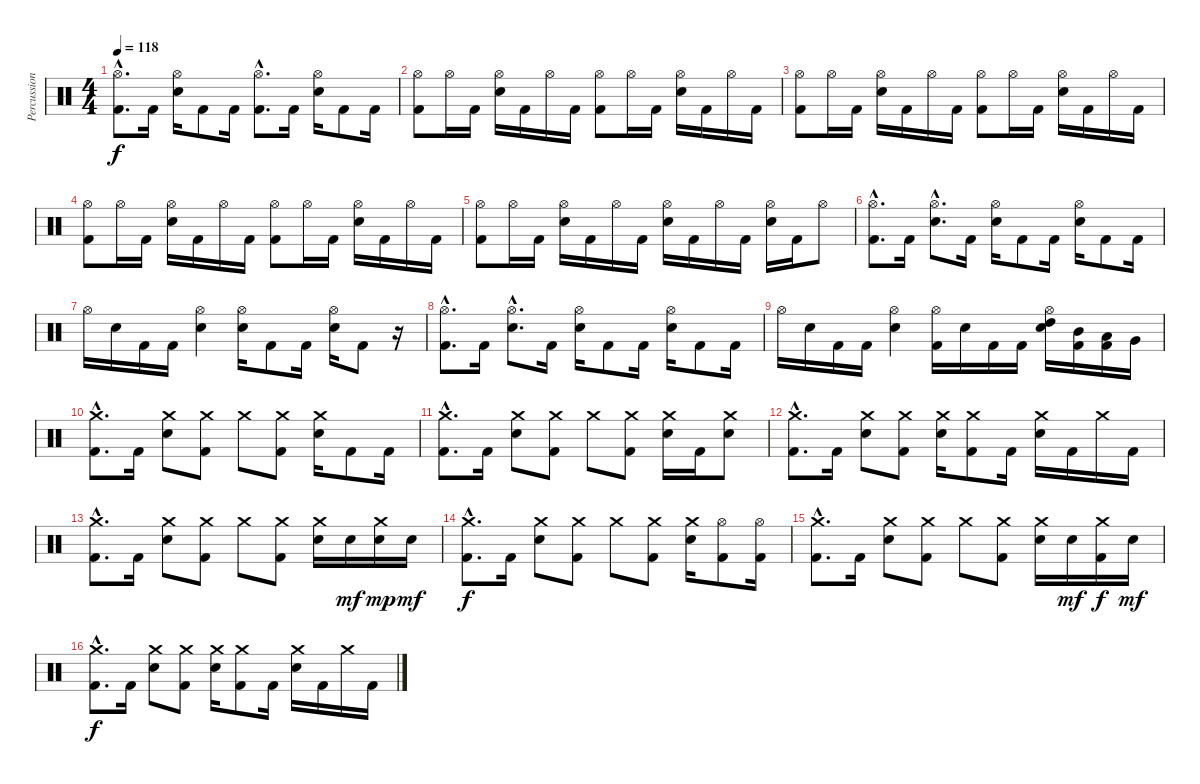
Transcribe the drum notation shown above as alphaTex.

\track ("Percussions" "Percussion") {instrument percussion}
\staff {score}
\articulation defaults
\ts (4 4)
\tempo 118
\clef neutral
\ks c
("Hi-Hat (open)"{hac} "Kick (hit) 2"{hac}).8{d dy f} "Kick (hit) 2".16 ("Hi-Hat (open)" "Electric Snare (hit)").16 "Kick (hit) 2".8 "Kick (hit) 2".16 ("Hi-Hat (open)"{hac} "Kick (hit) 2"{hac}).8{d} "Kick (hit) 2".16 ("Hi-Hat (open)" "Electric Snare (hit)").16 "Kick (hit) 2".8 "Kick (hit) 2".16 |
("Hi-Hat (open)" "Kick (hit) 2").8 "Hi-Hat (open)".16 "Kick (hit) 2".16 ("Hi-Hat (open)" "Electric Snare (hit)").16 "Kick (hit) 2".16 "Hi-Hat (open)".16 "Kick (hit) 2".16 ("Hi-Hat (open)" "Kick (hit) 2").8 "Hi-Hat (open)".16 "Kick (hit) 2".16 ("Hi-Hat (open)" "Electric Snare (hit)").16 "Kick (hit) 2".16 "Hi-Hat (open)".16 "Kick (hit) 2".16 |
("Hi-Hat (open)" "Kick (hit) 2").8 "Hi-Hat (open)".16 "Kick (hit) 2".16 ("Hi-Hat (open)" "Electric Snare (hit)").16 "Kick (hit) 2".16 "Hi-Hat (open)".16 "Kick (hit) 2".16 ("Hi-Hat (open)" "Kick (hit) 2").8 "Hi-Hat (open)".16 "Kick (hit) 2".16 ("Hi-Hat (open)" "Electric Snare (hit)").16 "Kick (hit) 2".16 "Hi-Hat (open)".16 "Kick (hit) 2".16 |
("Hi-Hat (open)" "Kick (hit) 2").8 "Hi-Hat (open)".16 "Kick (hit) 2".16 ("Hi-Hat (open)" "Electric Snare (hit)").16 "Kick (hit) 2".16 "Hi-Hat (open)".16 "Kick (hit) 2".16 ("Hi-Hat (open)" "Kick (hit) 2").8 "Hi-Hat (open)".16 "Kick (hit) 2".16 ("Hi-Hat (open)" "Electric Snare (hit)").16 "Kick (hit) 2".16 "Hi-Hat (open)".16 "Kick (hit) 2".16 |
("Hi-Hat (open)" "Kick (hit) 2").8 "Hi-Hat (open)".16 "Kick (hit) 2".16 ("Hi-Hat (open)" "Electric Snare (hit)").16 "Kick (hit) 2".16 "Hi-Hat (open)".16 "Kick (hit) 2".16 ("Hi-Hat (open)" "Electric Snare (hit)").16 "Kick (hit) 2".16 "Hi-Hat (open)".16 "Kick (hit) 2".16 ("Hi-Hat (open)" "Electric Snare (hit)").16 "Kick (hit) 2".16 "Hi-Hat (open)".8 |
("Hi-Hat (open)"{hac} "Kick (hit) 2"{hac}).8{d} "Kick (hit) 2".16 ("Hi-Hat (open)"{hac} "Electric Snare (hit)"{hac}).8{d} "Kick (hit) 2".16 ("Hi-Hat (open)" "Electric Snare (hit)").16 "Kick (hit) 2".8 "Kick (hit) 2".16 ("Hi-Hat (open)" "Electric Snare (hit)").16 "Kick (hit) 2".8 "Kick (hit) 2".16 |
"Hi-Hat (open)".16 "Electric Snare (hit)".16 "Kick (hit) 2".16 "Kick (hit) 2".16 ("Hi-Hat (open)" "Electric Snare (hit)").4 ("Hi-Hat (open)" "Electric Snare (hit)").16 "Kick (hit) 2".8 "Kick (hit) 2".16 ("Hi-Hat (open)" "Electric Snare (hit)").16 "Kick (hit) 2".8 r.16 |
("Hi-Hat (open)"{hac} "Kick (hit) 2"{hac}).8{d} "Kick (hit) 2".16 ("Hi-Hat (open)"{hac} "Electric Snare (hit)"{hac}).8{d} "Kick (hit) 2".16 ("Hi-Hat (open)" "Electric Snare (hit)").16 "Kick (hit) 2".8 "Kick (hit) 2".16 ("Hi-Hat (open)" "Electric Snare (hit)").16 "Kick (hit) 2".8 "Kick (hit) 2".16 |
"Hi-Hat (open)".16 "Electric Snare (hit)".16 "Kick (hit) 2".16 "Kick (hit) 2".16 ("Hi-Hat (open)" "Electric Snare (hit)").4 ("Hi-Hat (open)" "Kick (hit) 2").16 "Electric Snare (hit)".16 "Kick (hit) 2".16 "Kick (hit) 2".16 ("Hi-Hat (open)" "High Tom (hit)" "Electric Snare (hit)").16 ("Mid Tom (hit)" "Kick (hit) 2").16 ("Low Tom (hit)" "Kick (hit) 2").16 "Very Low Tom (hit)".16 |
("Crash medium (hit)"{hac} "Kick (hit) 2"{hac}).8{d} "Kick (hit) 2".16 ("Crash medium (hit)" "Electric Snare (hit)").8 ("Crash medium (hit)" "Kick (hit) 2").8 "Crash medium (hit)".8 ("Crash medium (hit)" "Kick (hit) 2").8 ("Crash medium (hit)" "Electric Snare (hit)").16 "Kick (hit) 2".8 "Kick (hit) 2".16 |
("Crash medium (hit)"{hac} "Kick (hit) 2"{hac}).8{d} "Kick (hit) 2".16 ("Crash medium (hit)" "Electric Snare (hit)").8 ("Crash medium (hit)" "Kick (hit) 2").8 "Crash medium (hit)".8 ("Crash medium (hit)" "Kick (hit) 2").8 ("Crash medium (hit)" "Electric Snare (hit)").16 "Kick (hit) 2".16 ("Crash medium (hit)" "Electric Snare (hit)").8 |
("Crash medium (hit)"{hac} "Kick (hit) 2"{hac}).8{d} "Kick (hit) 2".16 ("Crash medium (hit)" "Electric Snare (hit)").8 ("Crash medium (hit)" "Kick (hit) 2").8 ("Crash medium (hit)" "Electric Snare (hit)").16 ("Crash medium (hit)" "Kick (hit) 2").8 "Kick (hit) 2".16 ("Crash medium (hit)" "Electric Snare (hit)").16 "Kick (hit) 2".16 "Crash medium (hit)".16 "Kick (hit) 2".16 |
("Crash medium (hit)"{hac} "Kick (hit) 2"{hac}).8{d} "Kick (hit) 2".16 ("Crash medium (hit)" "Electric Snare (hit)").8 ("Crash medium (hit)" "Kick (hit) 2").8 "Crash medium (hit)".8 ("Crash medium (hit)" "Kick (hit) 2").8 ("Crash medium (hit)" "Electric Snare (hit)").16 "Electric Snare (hit)".16{dy mf} ("Crash medium (hit)" "Electric Snare (hit)").16{dy mp} "Electric Snare (hit)".16{dy mf} |
("Crash medium (hit)"{hac} "Kick (hit) 2"{hac}).8{d dy f} "Kick (hit) 2".16 ("Crash medium (hit)" "Electric Snare (hit)").8 ("Crash medium (hit)" "Kick (hit) 2").8 "Crash medium (hit)".8 ("Crash medium (hit)" "Kick (hit) 2").8 ("Crash medium (hit)" "Electric Snare (hit)").16 ("Hi-Hat (open)" "Kick (hit) 2").8 ("Hi-Hat (open)" "Kick (hit) 2").16 |
("Crash medium (hit)"{hac} "Kick (hit) 2"{hac}).8{d} "Kick (hit) 2".16 ("Crash medium (hit)" "Electric Snare (hit)").8 ("Crash medium (hit)" "Kick (hit) 2").8 "Crash medium (hit)".8 ("Crash medium (hit)" "Kick (hit) 2").8 ("Crash medium (hit)" "Electric Snare (hit)").16 "Electric Snare (hit)".16{dy mf} ("Crash medium (hit)" "Kick (hit) 2").16{dy f} "Electric Snare (hit)".16{dy mf} |
("Crash medium (hit)"{hac} "Kick (hit) 2"{hac}).8{d dy f} "Kick (hit) 2".16 ("Crash medium (hit)" "Electric Snare (hit)").8 ("Crash medium (hit)" "Kick (hit) 2").8 ("Crash medium (hit)" "Electric Snare (hit)").16 ("Crash medium (hit)" "Kick (hit) 2").8 "Kick (hit) 2".16 ("Crash medium (hit)" "Electric Snare (hit)").16 "Kick (hit) 2".16 "Crash medium (hit)".16 "Kick (hit) 2".16
